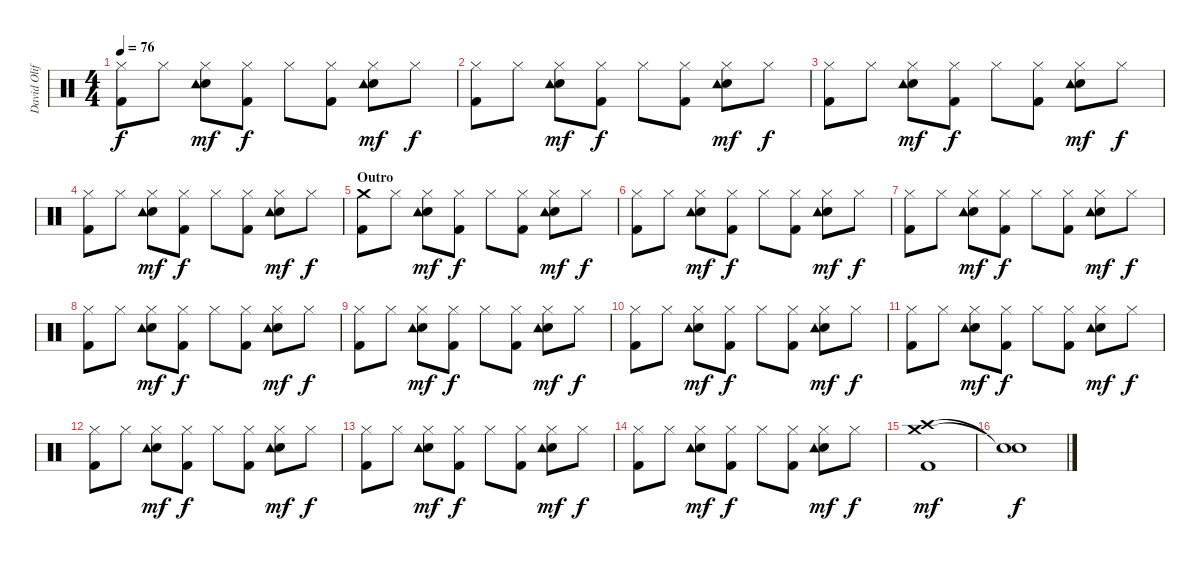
\track ("David Oliffe (Drum)" "David Olif") {instrument percussion}
\staff {score}
\articulation defaults
\ts (4 4)
\tempo 76
\clef neutral
\ks c
("Hi-Hat (closed)" "Kick (hit) 2").8{dy f} "Hi-Hat (closed)".8 ("Hi-Hat (closed)" "Electric Snare (hit)" "Tambourine (hit)").8{dy mf} ("Hi-Hat (closed)" "Kick (hit) 2").8{dy f} "Hi-Hat (closed)".8 ("Hi-Hat (closed)" "Kick (hit) 2").8 ("Hi-Hat (closed)" "Electric Snare (hit)" "Tambourine (hit)").8{dy mf} "Hi-Hat (closed)".8{dy f} |
("Hi-Hat (closed)" "Kick (hit) 2").8 "Hi-Hat (closed)".8 ("Hi-Hat (closed)" "Electric Snare (hit)" "Tambourine (hit)").8{dy mf} ("Hi-Hat (closed)" "Kick (hit) 2").8{dy f} "Hi-Hat (closed)".8 ("Hi-Hat (closed)" "Kick (hit) 2").8 ("Hi-Hat (closed)" "Electric Snare (hit)" "Tambourine (hit)").8{dy mf} "Hi-Hat (closed)".8{dy f} |
("Hi-Hat (closed)" "Kick (hit) 2").8 "Hi-Hat (closed)".8 ("Hi-Hat (closed)" "Electric Snare (hit)" "Tambourine (hit)").8{dy mf} ("Hi-Hat (closed)" "Kick (hit) 2").8{dy f} "Hi-Hat (closed)".8 ("Hi-Hat (closed)" "Kick (hit) 2").8 ("Hi-Hat (closed)" "Electric Snare (hit)" "Tambourine (hit)").8{dy mf} "Hi-Hat (closed)".8{dy f} |
("Hi-Hat (closed)" "Kick (hit) 2").8 "Hi-Hat (closed)".8 ("Hi-Hat (closed)" "Electric Snare (hit)" "Tambourine (hit)").8{dy mf} ("Hi-Hat (closed)" "Kick (hit) 2").8{dy f} "Hi-Hat (closed)".8 ("Hi-Hat (closed)" "Kick (hit) 2").8 ("Hi-Hat (closed)" "Electric Snare (hit)" "Tambourine (hit)").8{dy mf} "Hi-Hat (closed)".8{dy f} |
\section ("" "Outro")
("Crash medium (hit)" "Kick (hit) 2").8 "Hi-Hat (closed)".8 ("Hi-Hat (closed)" "Electric Snare (hit)" "Tambourine (hit)").8{dy mf} ("Hi-Hat (closed)" "Kick (hit) 2").8{dy f} "Hi-Hat (closed)".8 ("Hi-Hat (closed)" "Kick (hit) 2").8 ("Hi-Hat (closed)" "Electric Snare (hit)" "Tambourine (hit)").8{dy mf} "Hi-Hat (closed)".8{dy f} |
("Hi-Hat (closed)" "Kick (hit) 2").8 "Hi-Hat (closed)".8 ("Hi-Hat (closed)" "Electric Snare (hit)" "Tambourine (hit)").8{dy mf} ("Hi-Hat (closed)" "Kick (hit) 2").8{dy f} "Hi-Hat (closed)".8 ("Hi-Hat (closed)" "Kick (hit) 2").8 ("Hi-Hat (closed)" "Electric Snare (hit)" "Tambourine (hit)").8{dy mf} "Hi-Hat (closed)".8{dy f} |
("Hi-Hat (closed)" "Kick (hit) 2").8 "Hi-Hat (closed)".8 ("Hi-Hat (closed)" "Electric Snare (hit)" "Tambourine (hit)").8{dy mf} ("Hi-Hat (closed)" "Kick (hit) 2").8{dy f} "Hi-Hat (closed)".8 ("Hi-Hat (closed)" "Kick (hit) 2").8 ("Hi-Hat (closed)" "Electric Snare (hit)" "Tambourine (hit)").8{dy mf} "Hi-Hat (closed)".8{dy f} |
("Hi-Hat (closed)" "Kick (hit) 2").8 "Hi-Hat (closed)".8 ("Hi-Hat (closed)" "Electric Snare (hit)" "Tambourine (hit)").8{dy mf} ("Hi-Hat (closed)" "Kick (hit) 2").8{dy f} "Hi-Hat (closed)".8 ("Hi-Hat (closed)" "Kick (hit) 2").8 ("Hi-Hat (closed)" "Electric Snare (hit)" "Tambourine (hit)").8{dy mf} "Hi-Hat (closed)".8{dy f} |
("Hi-Hat (closed)" "Kick (hit) 2").8 "Hi-Hat (closed)".8 ("Hi-Hat (closed)" "Electric Snare (hit)" "Tambourine (hit)").8{dy mf} ("Hi-Hat (closed)" "Kick (hit) 2").8{dy f} "Hi-Hat (closed)".8 ("Hi-Hat (closed)" "Kick (hit) 2").8 ("Hi-Hat (closed)" "Electric Snare (hit)" "Tambourine (hit)").8{dy mf} "Hi-Hat (closed)".8{dy f} |
("Hi-Hat (closed)" "Kick (hit) 2").8 "Hi-Hat (closed)".8 ("Hi-Hat (closed)" "Electric Snare (hit)" "Tambourine (hit)").8{dy mf} ("Hi-Hat (closed)" "Kick (hit) 2").8{dy f} "Hi-Hat (closed)".8 ("Hi-Hat (closed)" "Kick (hit) 2").8 ("Hi-Hat (closed)" "Electric Snare (hit)" "Tambourine (hit)").8{dy mf} "Hi-Hat (closed)".8{dy f} |
("Hi-Hat (closed)" "Kick (hit) 2").8 "Hi-Hat (closed)".8 ("Hi-Hat (closed)" "Electric Snare (hit)" "Tambourine (hit)").8{dy mf} ("Hi-Hat (closed)" "Kick (hit) 2").8{dy f} "Hi-Hat (closed)".8 ("Hi-Hat (closed)" "Kick (hit) 2").8 ("Hi-Hat (closed)" "Electric Snare (hit)" "Tambourine (hit)").8{dy mf} "Hi-Hat (closed)".8{dy f} |
("Hi-Hat (closed)" "Kick (hit) 2").8 "Hi-Hat (closed)".8 ("Hi-Hat (closed)" "Electric Snare (hit)" "Tambourine (hit)").8{dy mf} ("Hi-Hat (closed)" "Kick (hit) 2").8{dy f} "Hi-Hat (closed)".8 ("Hi-Hat (closed)" "Kick (hit) 2").8 ("Hi-Hat (closed)" "Electric Snare (hit)" "Tambourine (hit)").8{dy mf} "Hi-Hat (closed)".8{dy f} |
("Hi-Hat (closed)" "Kick (hit) 2").8 "Hi-Hat (closed)".8 ("Hi-Hat (closed)" "Electric Snare (hit)" "Tambourine (hit)").8{dy mf} ("Hi-Hat (closed)" "Kick (hit) 2").8{dy f} "Hi-Hat (closed)".8 ("Hi-Hat (closed)" "Kick (hit) 2").8 ("Hi-Hat (closed)" "Electric Snare (hit)" "Tambourine (hit)").8{dy mf} "Hi-Hat (closed)".8{dy f} |
("Hi-Hat (closed)" "Kick (hit) 2").8 "Hi-Hat (closed)".8 ("Hi-Hat (closed)" "Electric Snare (hit)" "Tambourine (hit)").8{dy mf} ("Hi-Hat (closed)" "Kick (hit) 2").8{dy f} "Hi-Hat (closed)".8 ("Hi-Hat (closed)" "Kick (hit) 2").8 ("Hi-Hat (closed)" "Electric Snare (hit)" "Tambourine (hit)").8{dy mf} "Hi-Hat (closed)".8{dy f} |
("Crash medium (hit)" "Crash high (hit)" "Kick (hit) 2").1{dy mf} |
("Snare (hit)"{t} "Snare (hit)"{t}).1{dy f}
